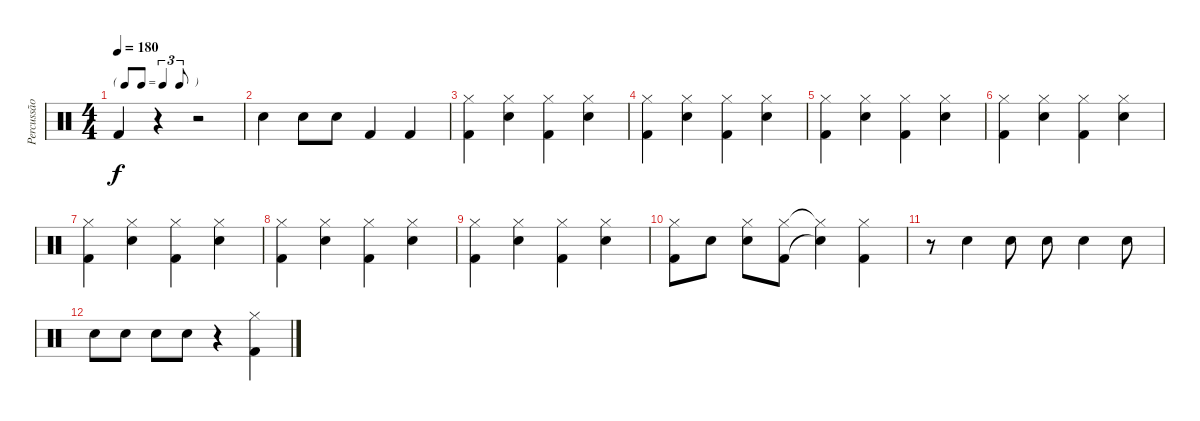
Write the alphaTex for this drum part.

\track ("Percussão" "Percussão") {instrument percussion}
\staff {score}
\articulation defaults
\ts (4 4)
\tf triplet8th
\tempo 180
\clef neutral
\ks c "Kick (hit) 2".4{dy f}
r.4 r.2 |
"Snare (hit) 2".4 "Snare (hit) 2".8 "Snare (hit) 2".8 "Kick (hit) 2".4 "Kick (hit) 2".4 |
("Hi-Hat (closed)" "Kick (hit) 2").4 ("Hi-Hat (closed)" "Snare (hit) 2").4 ("Hi-Hat (closed)" "Kick (hit) 2").4 ("Hi-Hat (closed)" "Snare (hit) 2").4 |
("Hi-Hat (closed)" "Kick (hit) 2").4 ("Hi-Hat (closed)" "Snare (hit) 2").4 ("Hi-Hat (closed)" "Kick (hit) 2").4 ("Hi-Hat (closed)" "Snare (hit) 2").4 |
("Hi-Hat (closed)" "Kick (hit) 2").4 ("Hi-Hat (closed)" "Snare (hit) 2").4 ("Hi-Hat (closed)" "Kick (hit) 2").4 ("Hi-Hat (closed)" "Snare (hit) 2").4 |
("Hi-Hat (closed)" "Kick (hit) 2").4 ("Hi-Hat (closed)" "Snare (hit) 2").4 ("Hi-Hat (closed)" "Kick (hit) 2").4 ("Hi-Hat (closed)" "Snare (hit) 2").4 |
("Hi-Hat (closed)" "Kick (hit) 2").4 ("Hi-Hat (closed)" "Snare (hit) 2").4 ("Hi-Hat (closed)" "Kick (hit) 2").4 ("Hi-Hat (closed)" "Snare (hit) 2").4 |
("Hi-Hat (closed)" "Kick (hit) 2").4 ("Hi-Hat (closed)" "Snare (hit) 2").4 ("Hi-Hat (closed)" "Kick (hit) 2").4 ("Hi-Hat (closed)" "Snare (hit) 2").4 |
("Hi-Hat (closed)" "Kick (hit) 2").4 ("Hi-Hat (closed)" "Snare (hit) 2").4 ("Hi-Hat (closed)" "Kick (hit) 2").4 ("Hi-Hat (closed)" "Snare (hit) 2").4 |
("Hi-Hat (closed)" "Kick (hit) 2").8 "Snare (hit) 2".8 ("Hi-Hat (closed)" "Snare (hit) 2").8 ("Hi-Hat (closed)" "Kick (hit) 2").8 ("Hi-Hat (closed)"{t} "Snare (hit)"{t}).4 ("Hi-Hat (closed)" "Kick (hit) 2").4 |
r.8 "Snare (hit) 2".4 "Snare (hit) 2".8 "Snare (hit) 2".8 "Snare (hit) 2".4 "Snare (hit) 2".8 |
"Snare (hit) 2".8 "Snare (hit) 2".8 "Snare (hit) 2".8 "Snare (hit) 2".8 r.4 ("Hi-Hat (closed)" "Kick (hit) 2").4
